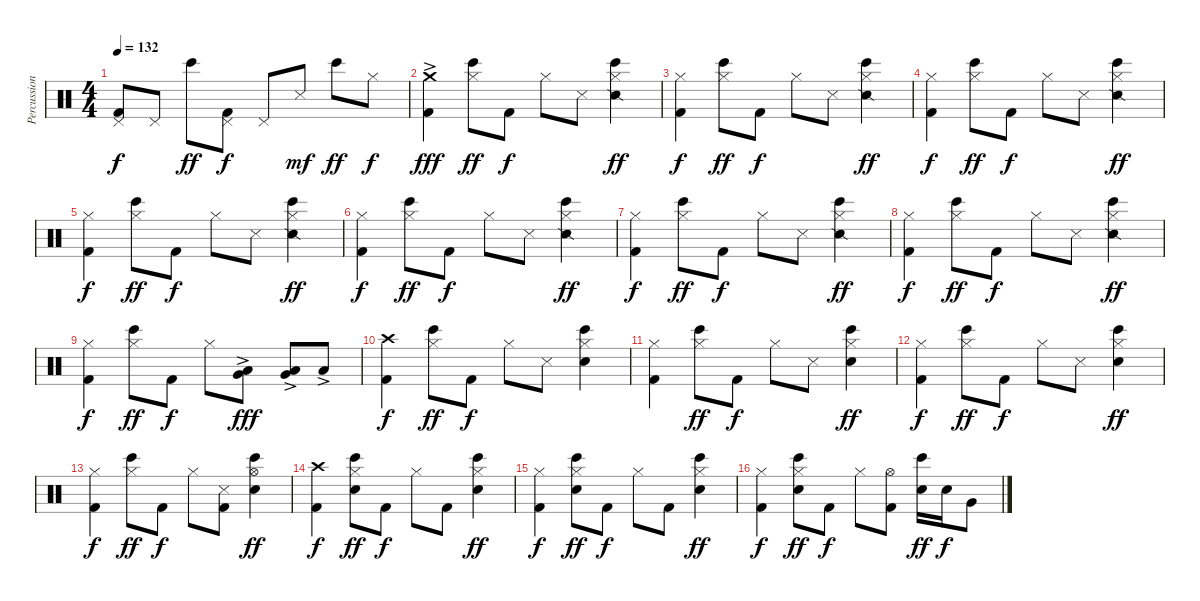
\track ("Percussion" "Percussion") {instrument percussion}
\staff {score}
\articulation defaults
\ts (4 4)
\tempo 132
\clef neutral
\ks c
("Pedal Hi-Hat (hit)" "Kick (hit) 2").8{dy f} "Pedal Hi-Hat (hit)".8 "Bongo High (hit)".8{dy ff} ("Pedal Hi-Hat (hit)" "Kick (hit) 2").8{dy f} "Pedal Hi-Hat (hit)".8 "Snare (side stick) 3".8{dy mf} "Bongo High (hit)".8{dy ff} "Hi-Hat (closed)".8{dy f} |
("Crash medium (hit)"{ac} "Kick (hit) 2").4{dy fff} ("Hi-Hat (closed)" "Bongo High (hit)").8{dy ff} "Kick (hit) 2".8{dy f} "Hi-Hat (closed)".8 "Snare (side stick) 3".8 ("Hi-Hat (closed)" "Bongo High (hit)" "Snare (side stick) 2").4{dy ff} |
("Hi-Hat (closed)" "Kick (hit) 2").4{dy f} ("Hi-Hat (closed)" "Bongo High (hit)").8{dy ff} "Kick (hit) 2".8{dy f} "Hi-Hat (closed)".8 "Snare (side stick) 3".8 ("Hi-Hat (closed)" "Bongo High (hit)" "Snare (side stick) 2").4{dy ff} |
("Hi-Hat (closed)" "Kick (hit) 2").4{dy f} ("Hi-Hat (closed)" "Bongo High (hit)").8{dy ff} "Kick (hit) 2".8{dy f} "Hi-Hat (closed)".8 "Snare (side stick) 3".8 ("Hi-Hat (closed)" "Bongo High (hit)" "Snare (side stick) 2").4{dy ff} |
("Hi-Hat (closed)" "Kick (hit) 2").4{dy f} ("Hi-Hat (closed)" "Bongo High (hit)").8{dy ff} "Kick (hit) 2".8{dy f} "Hi-Hat (closed)".8 "Snare (side stick) 3".8 ("Hi-Hat (closed)" "Bongo High (hit)" "Snare (side stick) 2").4{dy ff} |
("Hi-Hat (closed)" "Kick (hit) 2").4{dy f} ("Hi-Hat (closed)" "Bongo High (hit)").8{dy ff} "Kick (hit) 2".8{dy f} "Hi-Hat (closed)".8 "Snare (side stick) 3".8 ("Hi-Hat (closed)" "Bongo High (hit)" "Snare (side stick) 2").4{dy ff} |
("Hi-Hat (closed)" "Kick (hit) 2").4{dy f} ("Hi-Hat (closed)" "Bongo High (hit)").8{dy ff} "Kick (hit) 2".8{dy f} "Hi-Hat (closed)".8 "Snare (side stick) 3".8 ("Hi-Hat (closed)" "Bongo High (hit)" "Snare (side stick) 2").4{dy ff} |
("Hi-Hat (closed)" "Kick (hit) 2").4{dy f} ("Hi-Hat (closed)" "Bongo High (hit)").8{dy ff} "Kick (hit) 2".8{dy f} "Hi-Hat (closed)".8 "Snare (side stick) 3".8 ("Hi-Hat (closed)" "Bongo High (hit)" "Snare (side stick) 2").4{dy ff} |
("Hi-Hat (closed)" "Kick (hit) 2").4{dy f} ("Hi-Hat (closed)" "Bongo High (hit)").8{dy ff} "Kick (hit) 2".8{dy f} "Hi-Hat (closed)".8 ("Low Tom (hit)"{ac} "Very Low Tom (hit)").8{dy fff} ("Low Tom (hit)"{ac} "Very Low Tom (hit)").8 "Low Tom (hit)"{ac}.8 |
("Crash high (hit)" "Kick (hit) 2").4{dy f} ("Hi-Hat (closed)" "Bongo High (hit)").8{dy ff} "Kick (hit) 2".8{dy f} "Hi-Hat (closed)".8 "Snare (side stick) 3".8 ("Hi-Hat (closed)" "Bongo High (hit)" "Snare (hit) 2").4 |
("Hi-Hat (closed)" "Kick (hit) 2").4 ("Hi-Hat (closed)" "Bongo High (hit)").8{dy ff} "Kick (hit) 2".8{dy f} "Hi-Hat (closed)".8 "Snare (side stick) 3".8 ("Hi-Hat (closed)" "Bongo High (hit)" "Snare (hit) 2").4{dy ff} |
("Hi-Hat (closed)" "Kick (hit) 2").4{dy f} ("Hi-Hat (closed)" "Bongo High (hit)").8{dy ff} "Kick (hit) 2".8{dy f} "Hi-Hat (closed)".8 "Snare (side stick) 3".8 ("Hi-Hat (closed)" "Bongo High (hit)" "Snare (hit) 2").4{dy ff} |
("Hi-Hat (closed)" "Kick (hit) 2").4{dy f} ("Hi-Hat (closed)" "Bongo High (hit)").8{dy ff} "Kick (hit) 2".8{dy f} "Hi-Hat (closed)".8 ("Snare (side stick) 3" "Kick (hit) 2").8 ("Hi-Hat (open)" "Bongo High (hit)" "Snare (hit) 2").4{dy ff} |
("Crash high (hit)" "Kick (hit) 2").4{dy f} ("Hi-Hat (closed)" "Bongo High (hit)" "Snare (hit) 2").8{dy ff} "Kick (hit) 2".8{dy f} "Hi-Hat (closed)".8 "Kick (hit) 2".8 ("Hi-Hat (closed)" "Bongo High (hit)" "Snare (hit) 2").4{dy ff} |
("Hi-Hat (closed)" "Kick (hit) 2").4{dy f} ("Hi-Hat (closed)" "Bongo High (hit)" "Snare (hit) 2").8{dy ff} "Kick (hit) 2".8{dy f} "Hi-Hat (closed)".8 "Kick (hit) 2".8 ("Hi-Hat (closed)" "Bongo High (hit)" "Snare (hit) 2").4{dy ff} |
("Hi-Hat (closed)" "Kick (hit) 2").4{dy f} ("Hi-Hat (closed)" "Bongo High (hit)" "Snare (hit) 2").8{dy ff} "Kick (hit) 2".8{dy f} "Hi-Hat (closed)".8 ("Hi-Hat (open)" "Kick (hit) 2").8 ("Bongo High (hit)" "Snare (hit) 2").16{dy ff} "Snare (hit) 2".16{dy f} "Very Low Tom (hit)".8
